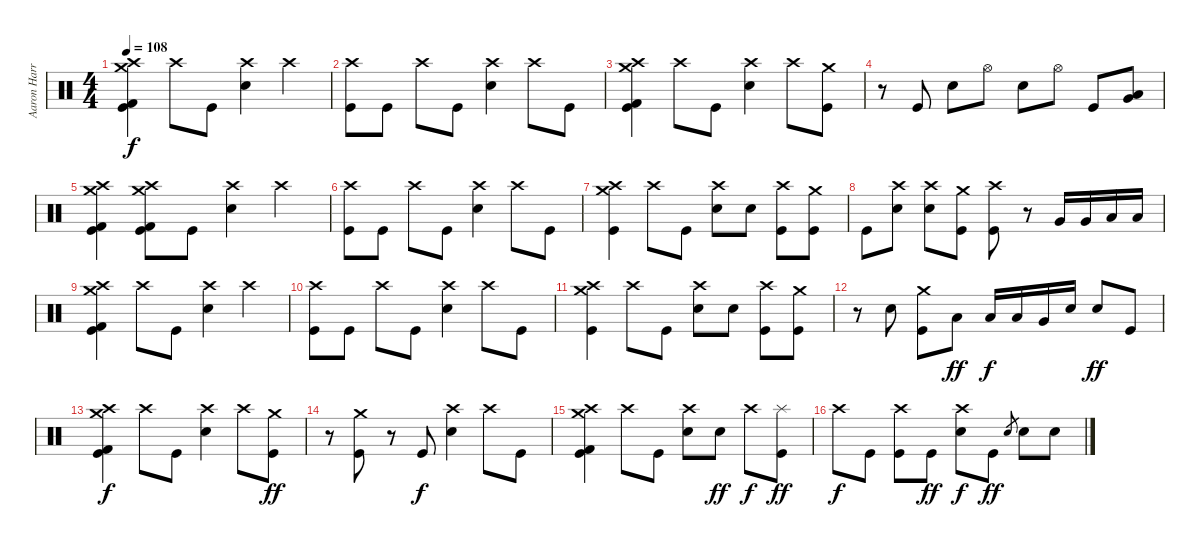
\track ("Aaron Harris" "Aaron Harr") {instrument percussion}
\staff {score}
\articulation defaults
\ts (4 4)
\tempo 108
\clef neutral
\ks c
("Crash medium (hit)" "Crash high (hit)" "Kick (hit) 2" "Kick (hit)").4{dy f} "Crash high (hit)".8 "Kick (hit)".8 ("Crash high (hit)" "Electric Snare (hit)").4 "Crash high (hit)".4 |
("Crash high (hit)" "Kick (hit)").8 "Kick (hit)".8 "Crash high (hit)".8 "Kick (hit)".8 ("Crash high (hit)" "Electric Snare (hit)").4 "Crash high (hit)".8 "Kick (hit)".8 |
("Crash medium (hit)" "Crash high (hit)" "Kick (hit) 2" "Kick (hit)").4 "Crash high (hit)".8 "Kick (hit)".8 ("Crash high (hit)" "Electric Snare (hit)").4 "Crash high (hit)".8 ("Crash medium (hit)" "Kick (hit)").8 |
r.8 "Kick (hit)".8 "Electric Snare (hit)".8 "Hi-Hat (open)".8 "Electric Snare (hit)".8 "Hi-Hat (open)".8 "Kick (hit)".8 ("Very Low Tom (hit)" "Low Floor Tom (hit)").8 |
("Crash medium (hit)" "Crash high (hit)" "Kick (hit) 2" "Kick (hit)").4 ("Crash medium (hit)" "Crash high (hit)" "Kick (hit) 2" "Kick (hit)").8 "Kick (hit)".8 ("Crash high (hit)" "Electric Snare (hit)").4 "Crash high (hit)".4 |
("Crash high (hit)" "Kick (hit)").8 "Kick (hit)".8 "Crash high (hit)".8 "Kick (hit)".8 ("Crash high (hit)" "Electric Snare (hit)").4 "Crash high (hit)".8 "Kick (hit)".8 |
("Crash medium (hit)" "Crash high (hit)" "Kick (hit)").4 "Crash high (hit)".8 "Kick (hit)".8 ("Crash high (hit)" "Electric Snare (hit)").8 "Electric Snare (hit)".8 ("Crash high (hit)" "Kick (hit)").8 ("Crash medium (hit)" "Kick (hit)").8 |
"Kick (hit)".8 ("Crash high (hit)" "Electric Snare (hit)").8 ("Crash high (hit)" "Electric Snare (hit)").8 ("Crash medium (hit)" "Kick (hit)").8 ("Crash high (hit)" "Kick (hit)").8 r.8 "Very Low Tom (hit)".16 "Very Low Tom (hit)".16 "Low Floor Tom (hit)".16 "Low Floor Tom (hit)".16 |
("Crash medium (hit)" "Crash high (hit)" "Kick (hit) 2" "Kick (hit)").4 "Crash high (hit)".8 "Kick (hit)".8 ("Crash high (hit)" "Electric Snare (hit)").4 "Crash high (hit)".4 |
("Crash high (hit)" "Kick (hit)").8 "Kick (hit)".8 "Crash high (hit)".8 "Kick (hit)".8 ("Crash high (hit)" "Electric Snare (hit)").4 "Crash high (hit)".8 "Kick (hit)".8 |
("Crash medium (hit)" "Crash high (hit)" "Kick (hit)").4 "Crash high (hit)".8 "Kick (hit)".8 ("Crash high (hit)" "Electric Snare (hit)").8 "Electric Snare (hit)".8 ("Crash high (hit)" "Kick (hit)").8 ("Crash medium (hit)" "Kick (hit)").8 |
r.8 "Electric Snare (hit)".8 ("Crash medium (hit)" "Kick (hit)").8 "Low Tom (hit)".8{dy ff} "Low Tom (hit)".16{dy f} "Low Tom (hit)".16 "Very Low Tom (hit)".16 "Electric Snare (hit)".16 "Electric Snare (hit)".8{dy ff} "Kick (hit)".8 |
("Crash medium (hit)" "Crash high (hit)" "Kick (hit) 2" "Kick (hit)").4{dy f} "Crash high (hit)".8 "Kick (hit)".8 ("Crash high (hit)" "Electric Snare (hit)").4 "Crash high (hit)".8 ("Crash medium (hit)" "Kick (hit)").8{dy ff} |
r.8 ("Crash medium (hit)" "Kick (hit)").8 r.8 "Kick (hit)".8{dy f} ("Crash high (hit)" "Electric Snare (hit)").4 "Crash high (hit)".8 "Kick (hit)".8 |
("Crash medium (hit)" "Crash high (hit)" "Kick (hit) 2" "Kick (hit)").4 "Crash high (hit)".8 "Kick (hit)".8 ("Crash high (hit)" "Electric Snare (hit)").8 "Electric Snare (hit)".8{dy ff} "Crash high (hit)".8{dy f} ("Splash (hit)" "Kick (hit)").8{dy ff} |
"Crash high (hit)".8{dy f} "Kick (hit)".8 ("Crash high (hit)" "Kick (hit)").8 "Kick (hit)".8{dy ff} ("Crash high (hit)" "Electric Snare (hit)").8{dy f} "Kick (hit)".8{dy ff} "Electric Snare (hit)".8{gr} "Electric Snare (hit)".8 "Electric Snare (hit)".8
